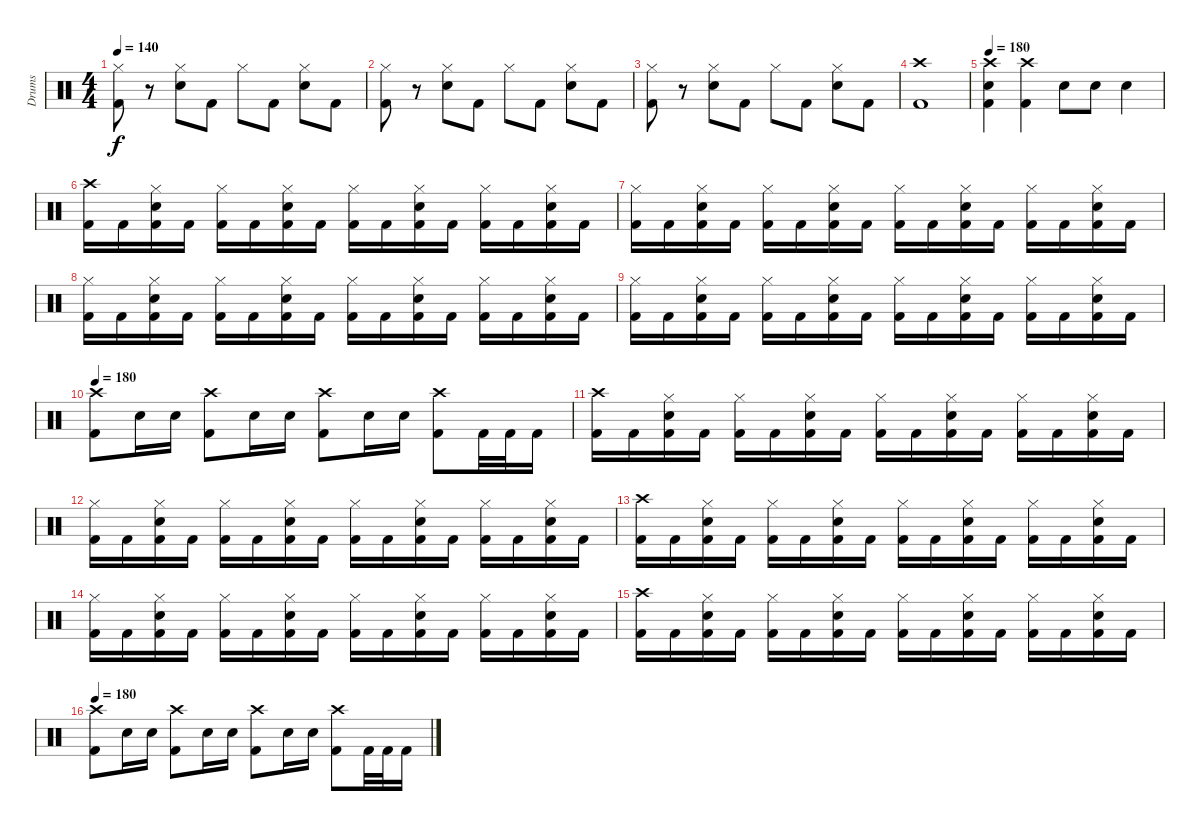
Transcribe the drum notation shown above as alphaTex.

\track ("Drums" "Drums") {instrument percussion}
\staff {score}
\articulation defaults
\ts (4 4)
\tempo 140
\clef neutral
\ks c
("Hi-Hat (closed)" "Kick (hit) 2").8{dy f} r.8 ("Hi-Hat (closed)" "Electric Snare (hit)").8 "Kick (hit) 2".8 "Hi-Hat (closed)".8 "Kick (hit) 2".8 ("Hi-Hat (closed)" "Electric Snare (hit)").8 "Kick (hit) 2".8 |
("Hi-Hat (closed)" "Kick (hit) 2").8 r.8 ("Hi-Hat (closed)" "Electric Snare (hit)").8 "Kick (hit) 2".8 "Hi-Hat (closed)".8 "Kick (hit) 2".8 ("Hi-Hat (closed)" "Electric Snare (hit)").8 "Kick (hit) 2".8 |
("Hi-Hat (closed)" "Kick (hit) 2").8 r.8 ("Hi-Hat (closed)" "Electric Snare (hit)").8 "Kick (hit) 2".8 "Hi-Hat (closed)".8 "Kick (hit) 2".8 ("Hi-Hat (closed)" "Electric Snare (hit)").8 "Kick (hit) 2".8 |
("Crash high (hit)" "Kick (hit) 2").1 |
\tempo 180
("Crash high (hit)" "Electric Snare (hit)" "Kick (hit) 2").4 ("Crash high (hit)" "Kick (hit) 2").4 "Electric Snare (hit)".8 "Electric Snare (hit)".8 "Electric Snare (hit)".4 |
("Crash high (hit)" "Kick (hit) 2").16 "Kick (hit) 2".16 ("Hi-Hat (closed)" "Electric Snare (hit)" "Kick (hit) 2").16 "Kick (hit) 2".16 ("Hi-Hat (closed)" "Kick (hit) 2").16 "Kick (hit) 2".16 ("Hi-Hat (closed)" "Electric Snare (hit)" "Kick (hit) 2").16 "Kick (hit) 2".16 ("Hi-Hat (closed)" "Kick (hit) 2").16 "Kick (hit) 2".16 ("Hi-Hat (closed)" "Electric Snare (hit)" "Kick (hit) 2").16 "Kick (hit) 2".16 ("Hi-Hat (closed)" "Kick (hit) 2").16 "Kick (hit) 2".16 ("Hi-Hat (closed)" "Electric Snare (hit)" "Kick (hit) 2").16 "Kick (hit) 2".16 |
("Hi-Hat (closed)" "Kick (hit) 2").16 "Kick (hit) 2".16 ("Hi-Hat (closed)" "Electric Snare (hit)" "Kick (hit) 2").16 "Kick (hit) 2".16 ("Hi-Hat (closed)" "Kick (hit) 2").16 "Kick (hit) 2".16 ("Hi-Hat (closed)" "Electric Snare (hit)" "Kick (hit) 2").16 "Kick (hit) 2".16 ("Hi-Hat (closed)" "Kick (hit) 2").16 "Kick (hit) 2".16 ("Hi-Hat (closed)" "Electric Snare (hit)" "Kick (hit) 2").16 "Kick (hit) 2".16 ("Hi-Hat (closed)" "Kick (hit) 2").16 "Kick (hit) 2".16 ("Hi-Hat (closed)" "Electric Snare (hit)" "Kick (hit) 2").16 "Kick (hit) 2".16 |
("Hi-Hat (closed)" "Kick (hit) 2").16 "Kick (hit) 2".16 ("Hi-Hat (closed)" "Electric Snare (hit)" "Kick (hit) 2").16 "Kick (hit) 2".16 ("Hi-Hat (closed)" "Kick (hit) 2").16 "Kick (hit) 2".16 ("Hi-Hat (closed)" "Electric Snare (hit)" "Kick (hit) 2").16 "Kick (hit) 2".16 ("Hi-Hat (closed)" "Kick (hit) 2").16 "Kick (hit) 2".16 ("Hi-Hat (closed)" "Electric Snare (hit)" "Kick (hit) 2").16 "Kick (hit) 2".16 ("Hi-Hat (closed)" "Kick (hit) 2").16 "Kick (hit) 2".16 ("Hi-Hat (closed)" "Electric Snare (hit)" "Kick (hit) 2").16 "Kick (hit) 2".16 |
("Hi-Hat (closed)" "Kick (hit) 2").16 "Kick (hit) 2".16 ("Hi-Hat (closed)" "Electric Snare (hit)" "Kick (hit) 2").16 "Kick (hit) 2".16 ("Hi-Hat (closed)" "Kick (hit) 2").16 "Kick (hit) 2".16 ("Hi-Hat (closed)" "Electric Snare (hit)" "Kick (hit) 2").16 "Kick (hit) 2".16 ("Hi-Hat (closed)" "Kick (hit) 2").16 "Kick (hit) 2".16 ("Hi-Hat (closed)" "Electric Snare (hit)" "Kick (hit) 2").16 "Kick (hit) 2".16 ("Hi-Hat (closed)" "Kick (hit) 2").16 "Kick (hit) 2".16 ("Hi-Hat (closed)" "Electric Snare (hit)" "Kick (hit) 2").16 "Kick (hit) 2".16 |
\tempo 180
("Crash high (hit)" "Kick (hit) 2").8 "Electric Snare (hit)".16 "Electric Snare (hit)".16 ("Crash high (hit)" "Kick (hit) 2").8 "Electric Snare (hit)".16 "Electric Snare (hit)".16 ("Crash high (hit)" "Kick (hit) 2").8 "Electric Snare (hit)".16 "Electric Snare (hit)".16 ("Crash high (hit)" "Kick (hit) 2").8 "Kick (hit) 2".32 "Kick (hit) 2".32 "Kick (hit) 2".16 |
("Crash high (hit)" "Kick (hit) 2").16 "Kick (hit) 2".16 ("Hi-Hat (closed)" "Electric Snare (hit)" "Kick (hit) 2").16 "Kick (hit) 2".16 ("Hi-Hat (closed)" "Kick (hit) 2").16 "Kick (hit) 2".16 ("Hi-Hat (closed)" "Electric Snare (hit)" "Kick (hit) 2").16 "Kick (hit) 2".16 ("Hi-Hat (closed)" "Kick (hit) 2").16 "Kick (hit) 2".16 ("Hi-Hat (closed)" "Electric Snare (hit)" "Kick (hit) 2").16 "Kick (hit) 2".16 ("Hi-Hat (closed)" "Kick (hit) 2").16 "Kick (hit) 2".16 ("Hi-Hat (closed)" "Electric Snare (hit)" "Kick (hit) 2").16 "Kick (hit) 2".16 |
("Hi-Hat (closed)" "Kick (hit) 2").16 "Kick (hit) 2".16 ("Hi-Hat (closed)" "Electric Snare (hit)" "Kick (hit) 2").16 "Kick (hit) 2".16 ("Hi-Hat (closed)" "Kick (hit) 2").16 "Kick (hit) 2".16 ("Hi-Hat (closed)" "Electric Snare (hit)" "Kick (hit) 2").16 "Kick (hit) 2".16 ("Hi-Hat (closed)" "Kick (hit) 2").16 "Kick (hit) 2".16 ("Hi-Hat (closed)" "Electric Snare (hit)" "Kick (hit) 2").16 "Kick (hit) 2".16 ("Hi-Hat (closed)" "Kick (hit) 2").16 "Kick (hit) 2".16 ("Hi-Hat (closed)" "Electric Snare (hit)" "Kick (hit) 2").16 "Kick (hit) 2".16 |
("Crash high (hit)" "Kick (hit) 2").16 "Kick (hit) 2".16 ("Hi-Hat (closed)" "Electric Snare (hit)" "Kick (hit) 2").16 "Kick (hit) 2".16 ("Hi-Hat (closed)" "Kick (hit) 2").16 "Kick (hit) 2".16 ("Hi-Hat (closed)" "Electric Snare (hit)" "Kick (hit) 2").16 "Kick (hit) 2".16 ("Hi-Hat (closed)" "Kick (hit) 2").16 "Kick (hit) 2".16 ("Hi-Hat (closed)" "Electric Snare (hit)" "Kick (hit) 2").16 "Kick (hit) 2".16 ("Hi-Hat (closed)" "Kick (hit) 2").16 "Kick (hit) 2".16 ("Hi-Hat (closed)" "Electric Snare (hit)" "Kick (hit) 2").16 "Kick (hit) 2".16 |
("Hi-Hat (closed)" "Kick (hit) 2").16 "Kick (hit) 2".16 ("Hi-Hat (closed)" "Electric Snare (hit)" "Kick (hit) 2").16 "Kick (hit) 2".16 ("Hi-Hat (closed)" "Kick (hit) 2").16 "Kick (hit) 2".16 ("Hi-Hat (closed)" "Electric Snare (hit)" "Kick (hit) 2").16 "Kick (hit) 2".16 ("Hi-Hat (closed)" "Kick (hit) 2").16 "Kick (hit) 2".16 ("Hi-Hat (closed)" "Electric Snare (hit)" "Kick (hit) 2").16 "Kick (hit) 2".16 ("Hi-Hat (closed)" "Kick (hit) 2").16 "Kick (hit) 2".16 ("Hi-Hat (closed)" "Electric Snare (hit)" "Kick (hit) 2").16 "Kick (hit) 2".16 |
("Crash high (hit)" "Kick (hit) 2").16 "Kick (hit) 2".16 ("Hi-Hat (closed)" "Electric Snare (hit)" "Kick (hit) 2").16 "Kick (hit) 2".16 ("Hi-Hat (closed)" "Kick (hit) 2").16 "Kick (hit) 2".16 ("Hi-Hat (closed)" "Electric Snare (hit)" "Kick (hit) 2").16 "Kick (hit) 2".16 ("Hi-Hat (closed)" "Kick (hit) 2").16 "Kick (hit) 2".16 ("Hi-Hat (closed)" "Electric Snare (hit)" "Kick (hit) 2").16 "Kick (hit) 2".16 ("Hi-Hat (closed)" "Kick (hit) 2").16 "Kick (hit) 2".16 ("Hi-Hat (closed)" "Electric Snare (hit)" "Kick (hit) 2").16 "Kick (hit) 2".16 |
\tempo 180
("Crash high (hit)" "Kick (hit) 2").8 "Electric Snare (hit)".16 "Electric Snare (hit)".16 ("Crash high (hit)" "Kick (hit) 2").8 "Electric Snare (hit)".16 "Electric Snare (hit)".16 ("Crash high (hit)" "Kick (hit) 2").8 "Electric Snare (hit)".16 "Electric Snare (hit)".16 ("Crash high (hit)" "Kick (hit) 2").8 "Kick (hit) 2".32 "Kick (hit) 2".32 "Kick (hit) 2".16
